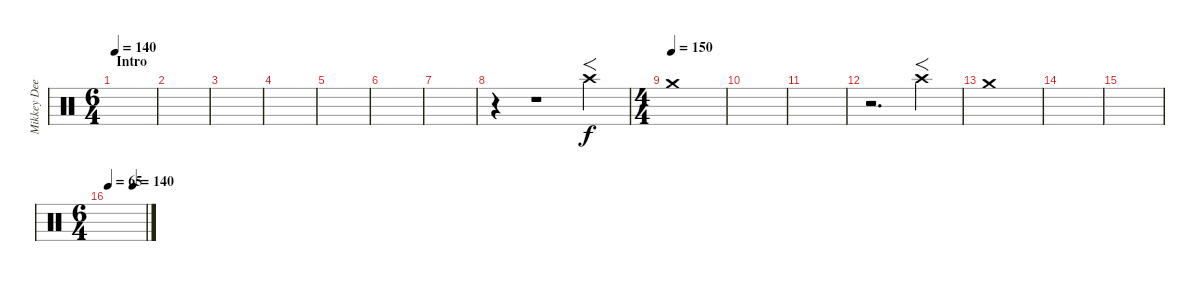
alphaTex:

\track ("Mikkey Dee" "Mikkey Dee") {instrument percussion}
\staff {score}
\articulation defaults
\ts (6 4)
\section ("" "Intro")
\tempo 140
\clef neutral
\ks c
|
|
|
|
|
|
|
r.4 r.1 "Crash high (hit)".4{f} |
\ts (4 4)
\tempo (150)
"Crash medium (hit)".1 |
|
|
r.2{d} "Crash high (hit)".4{f} |
"Crash medium (hit)".1 |
|
|
\ts (6 4)
\tempo (140 0.6666666666666666)
\tempo 65
